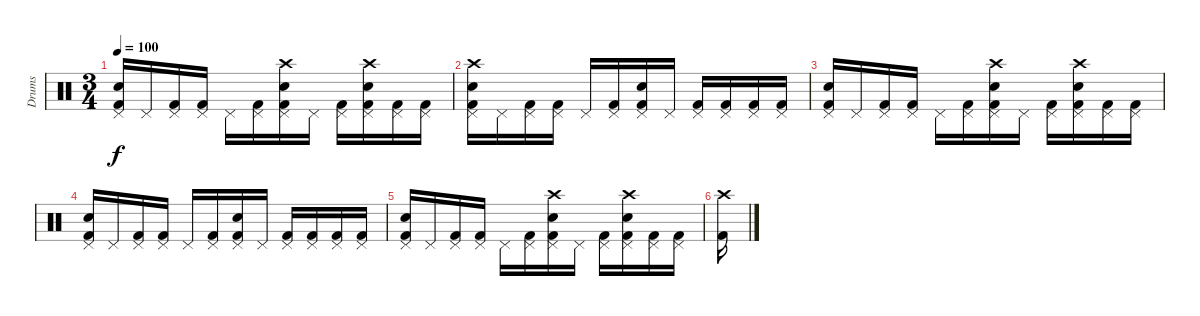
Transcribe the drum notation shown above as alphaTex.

\track ("Drums" "Drums") {instrument percussion}
\staff {score}
\articulation defaults
\ts (3 4)
\tempo 100
\clef neutral
\ks c
("Snare (hit) 2" "Pedal Hi-Hat (hit)" "Kick (hit) 2").16{dy f} "Pedal Hi-Hat (hit)".16 ("Pedal Hi-Hat (hit)" "Kick (hit) 2").16 ("Pedal Hi-Hat (hit)" "Kick (hit) 2").16 "Pedal Hi-Hat (hit)".16 ("Pedal Hi-Hat (hit)" "Kick (hit) 2").16 ("Crash high (hit)" "Snare (hit) 2" "Pedal Hi-Hat (hit)" "Kick (hit) 2").16 "Pedal Hi-Hat (hit)".16 ("Pedal Hi-Hat (hit)" "Kick (hit) 2").16 ("Crash high (hit)" "Snare (hit) 2" "Pedal Hi-Hat (hit)" "Kick (hit) 2").16 ("Pedal Hi-Hat (hit)" "Kick (hit) 2").16 ("Pedal Hi-Hat (hit)" "Kick (hit) 2").16 |
("Crash high (hit)" "Snare (hit) 2" "Pedal Hi-Hat (hit)" "Kick (hit) 2").16 "Pedal Hi-Hat (hit)".16 ("Pedal Hi-Hat (hit)" "Kick (hit) 2").16 ("Pedal Hi-Hat (hit)" "Kick (hit) 2").16 "Pedal Hi-Hat (hit)".16 ("Pedal Hi-Hat (hit)" "Kick (hit) 2").16 ("Snare (hit) 2" "Pedal Hi-Hat (hit)" "Kick (hit) 2").16 "Pedal Hi-Hat (hit)".16 ("Pedal Hi-Hat (hit)" "Kick (hit) 2").16 ("Pedal Hi-Hat (hit)" "Kick (hit) 2").16 ("Pedal Hi-Hat (hit)" "Kick (hit) 2").16 ("Pedal Hi-Hat (hit)" "Kick (hit) 2").16 |
("Snare (hit) 2" "Pedal Hi-Hat (hit)" "Kick (hit) 2").16 "Pedal Hi-Hat (hit)".16 ("Pedal Hi-Hat (hit)" "Kick (hit) 2").16 ("Pedal Hi-Hat (hit)" "Kick (hit) 2").16 "Pedal Hi-Hat (hit)".16 ("Pedal Hi-Hat (hit)" "Kick (hit) 2").16 ("Crash high (hit)" "Snare (hit) 2" "Pedal Hi-Hat (hit)" "Kick (hit) 2").16 "Pedal Hi-Hat (hit)".16 ("Pedal Hi-Hat (hit)" "Kick (hit) 2").16 ("Crash high (hit)" "Snare (hit) 2" "Pedal Hi-Hat (hit)" "Kick (hit) 2").16 ("Pedal Hi-Hat (hit)" "Kick (hit) 2").16 ("Pedal Hi-Hat (hit)" "Kick (hit) 2").16 |
("Snare (hit) 2" "Pedal Hi-Hat (hit)" "Kick (hit) 2").16 "Pedal Hi-Hat (hit)".16 ("Pedal Hi-Hat (hit)" "Kick (hit) 2").16 ("Pedal Hi-Hat (hit)" "Kick (hit) 2").16 "Pedal Hi-Hat (hit)".16 ("Pedal Hi-Hat (hit)" "Kick (hit) 2").16 ("Snare (hit) 2" "Pedal Hi-Hat (hit)" "Kick (hit) 2").16 "Pedal Hi-Hat (hit)".16 ("Pedal Hi-Hat (hit)" "Kick (hit) 2").16 ("Pedal Hi-Hat (hit)" "Kick (hit) 2").16 ("Pedal Hi-Hat (hit)" "Kick (hit) 2").16 ("Pedal Hi-Hat (hit)" "Kick (hit) 2").16 |
("Snare (hit) 2" "Pedal Hi-Hat (hit)" "Kick (hit) 2").16 "Pedal Hi-Hat (hit)".16 ("Pedal Hi-Hat (hit)" "Kick (hit) 2").16 ("Pedal Hi-Hat (hit)" "Kick (hit) 2").16 "Pedal Hi-Hat (hit)".16 ("Pedal Hi-Hat (hit)" "Kick (hit) 2").16 ("Crash high (hit)" "Snare (hit) 2" "Pedal Hi-Hat (hit)" "Kick (hit) 2").16 "Pedal Hi-Hat (hit)".16 ("Pedal Hi-Hat (hit)" "Kick (hit) 2").16 ("Crash high (hit)" "Snare (hit) 2" "Pedal Hi-Hat (hit)" "Kick (hit) 2").16 ("Pedal Hi-Hat (hit)" "Kick (hit) 2").16 ("Pedal Hi-Hat (hit)" "Kick (hit) 2").16 |
("Crash high (hit)" "Kick (hit) 2").16
